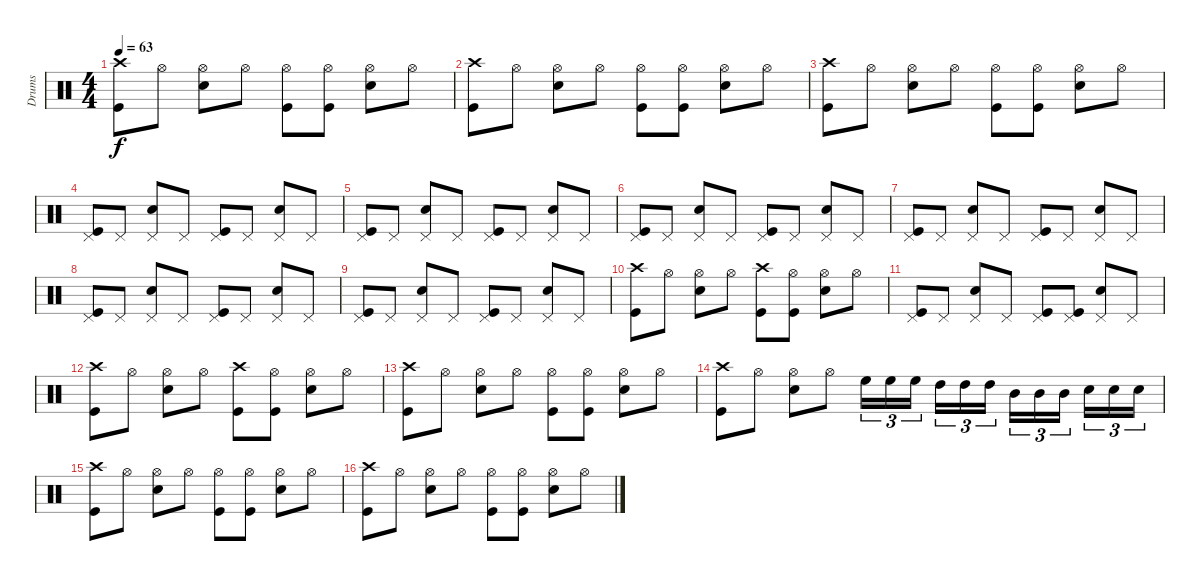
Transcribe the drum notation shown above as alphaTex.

\track ("Drums" "Drums") {instrument percussion}
\staff {score}
\articulation defaults
\ts (4 4)
\tempo 63
\clef neutral
\ks c
("Crash high (hit)" "Kick (hit)").8{dy f} "Hi-Hat (open)".8 ("Hi-Hat (open)" "Electric Snare (hit)").8 "Hi-Hat (open)".8 ("Hi-Hat (open)" "Kick (hit)").8 ("Hi-Hat (open)" "Kick (hit)").8 ("Hi-Hat (open)" "Electric Snare (hit)").8 "Hi-Hat (open)".8 |
("Crash high (hit)" "Kick (hit)").8 "Hi-Hat (open)".8 ("Hi-Hat (open)" "Electric Snare (hit)").8 "Hi-Hat (open)".8 ("Hi-Hat (open)" "Kick (hit)").8 ("Hi-Hat (open)" "Kick (hit)").8 ("Hi-Hat (open)" "Electric Snare (hit)").8 "Hi-Hat (open)".8 |
("Crash high (hit)" "Kick (hit)").8 "Hi-Hat (open)".8 ("Hi-Hat (open)" "Electric Snare (hit)").8 "Hi-Hat (open)".8 ("Hi-Hat (open)" "Kick (hit)").8 ("Hi-Hat (open)" "Kick (hit)").8 ("Hi-Hat (open)" "Electric Snare (hit)").8 "Hi-Hat (open)".8 |
("Pedal Hi-Hat (hit)" "Kick (hit)").8 "Pedal Hi-Hat (hit)".8 ("Pedal Hi-Hat (hit)" "Electric Snare (hit)").8 "Pedal Hi-Hat (hit)".8 ("Pedal Hi-Hat (hit)" "Kick (hit)").8 "Pedal Hi-Hat (hit)".8 ("Pedal Hi-Hat (hit)" "Electric Snare (hit)").8 "Pedal Hi-Hat (hit)".8 |
("Pedal Hi-Hat (hit)" "Kick (hit)").8 "Pedal Hi-Hat (hit)".8 ("Pedal Hi-Hat (hit)" "Electric Snare (hit)").8 "Pedal Hi-Hat (hit)".8 ("Pedal Hi-Hat (hit)" "Kick (hit)").8 "Pedal Hi-Hat (hit)".8 ("Pedal Hi-Hat (hit)" "Electric Snare (hit)").8 "Pedal Hi-Hat (hit)".8 |
("Pedal Hi-Hat (hit)" "Kick (hit)").8 "Pedal Hi-Hat (hit)".8 ("Pedal Hi-Hat (hit)" "Electric Snare (hit)").8 "Pedal Hi-Hat (hit)".8 ("Pedal Hi-Hat (hit)" "Kick (hit)").8 "Pedal Hi-Hat (hit)".8 ("Pedal Hi-Hat (hit)" "Electric Snare (hit)").8 "Pedal Hi-Hat (hit)".8 |
("Pedal Hi-Hat (hit)" "Kick (hit)").8 "Pedal Hi-Hat (hit)".8 ("Pedal Hi-Hat (hit)" "Electric Snare (hit)").8 "Pedal Hi-Hat (hit)".8 ("Pedal Hi-Hat (hit)" "Kick (hit)").8 "Pedal Hi-Hat (hit)".8 ("Pedal Hi-Hat (hit)" "Electric Snare (hit)").8 "Pedal Hi-Hat (hit)".8 |
("Pedal Hi-Hat (hit)" "Kick (hit)").8 "Pedal Hi-Hat (hit)".8 ("Pedal Hi-Hat (hit)" "Electric Snare (hit)").8 "Pedal Hi-Hat (hit)".8 ("Pedal Hi-Hat (hit)" "Kick (hit)").8 "Pedal Hi-Hat (hit)".8 ("Pedal Hi-Hat (hit)" "Electric Snare (hit)").8 "Pedal Hi-Hat (hit)".8 |
("Pedal Hi-Hat (hit)" "Kick (hit)").8 "Pedal Hi-Hat (hit)".8 ("Pedal Hi-Hat (hit)" "Electric Snare (hit)").8 "Pedal Hi-Hat (hit)".8 ("Pedal Hi-Hat (hit)" "Kick (hit)").8 "Pedal Hi-Hat (hit)".8 ("Pedal Hi-Hat (hit)" "Electric Snare (hit)").8 "Pedal Hi-Hat (hit)".8 |
("Crash high (hit)" "Kick (hit)").8 "Hi-Hat (open)".8 ("Hi-Hat (open)" "Electric Snare (hit)").8 "Hi-Hat (open)".8 ("Crash high (hit)" "Kick (hit)").8 ("Hi-Hat (open)" "Kick (hit)").8 ("Hi-Hat (open)" "Electric Snare (hit)").8 "Hi-Hat (open)".8 |
("Pedal Hi-Hat (hit)" "Kick (hit)").8 "Pedal Hi-Hat (hit)".8 ("Pedal Hi-Hat (hit)" "Electric Snare (hit)").8 "Pedal Hi-Hat (hit)".8 ("Pedal Hi-Hat (hit)" "Kick (hit)").8 ("Pedal Hi-Hat (hit)" "Kick (hit)").8 ("Pedal Hi-Hat (hit)" "Electric Snare (hit)").8 "Pedal Hi-Hat (hit)".8 |
("Crash high (hit)" "Kick (hit)").8 "Hi-Hat (open)".8 ("Hi-Hat (open)" "Electric Snare (hit)").8 "Hi-Hat (open)".8 ("Crash high (hit)" "Kick (hit)").8 ("Hi-Hat (open)" "Kick (hit)").8 ("Hi-Hat (open)" "Electric Snare (hit)").8 "Hi-Hat (open)".8 |
("Crash high (hit)" "Kick (hit)").8 "Hi-Hat (open)".8 ("Hi-Hat (open)" "Electric Snare (hit)").8 "Hi-Hat (open)".8 ("Hi-Hat (open)" "Kick (hit)").8 ("Hi-Hat (open)" "Kick (hit)").8 ("Hi-Hat (open)" "Electric Snare (hit)").8 "Hi-Hat (open)".8 |
("Crash high (hit)" "Kick (hit)").8 "Hi-Hat (open)".8 ("Hi-Hat (open)" "Electric Snare (hit)").8 "Hi-Hat (open)".8 "High Floor Tom (hit)".16{tu (3 2)} "High Floor Tom (hit)".16{tu (3 2)} "High Floor Tom (hit)".16{tu (3 2)} "High Tom (hit)".16{tu (3 2)} "High Tom (hit)".16{tu (3 2)} "High Tom (hit)".16{tu (3 2)} "Mid Tom (hit)".16{tu (3 2)} "Mid Tom (hit)".16{tu (3 2)} "Mid Tom (hit)".16{tu (3 2)} "Electric Snare (hit)".16{tu (3 2)} "Electric Snare (hit)".16{tu (3 2)} "Electric Snare (hit)".16{tu (3 2)} |
("Crash high (hit)" "Kick (hit)").8 "Hi-Hat (open)".8 ("Hi-Hat (open)" "Electric Snare (hit)").8 "Hi-Hat (open)".8 ("Hi-Hat (open)" "Kick (hit)").8 ("Hi-Hat (open)" "Kick (hit)").8 ("Hi-Hat (open)" "Electric Snare (hit)").8 "Hi-Hat (open)".8 |
("Crash high (hit)" "Kick (hit)").8 "Hi-Hat (open)".8 ("Hi-Hat (open)" "Electric Snare (hit)").8 "Hi-Hat (open)".8 ("Hi-Hat (open)" "Kick (hit)").8 ("Hi-Hat (open)" "Kick (hit)").8 ("Hi-Hat (open)" "Electric Snare (hit)").8 "Hi-Hat (open)".8
